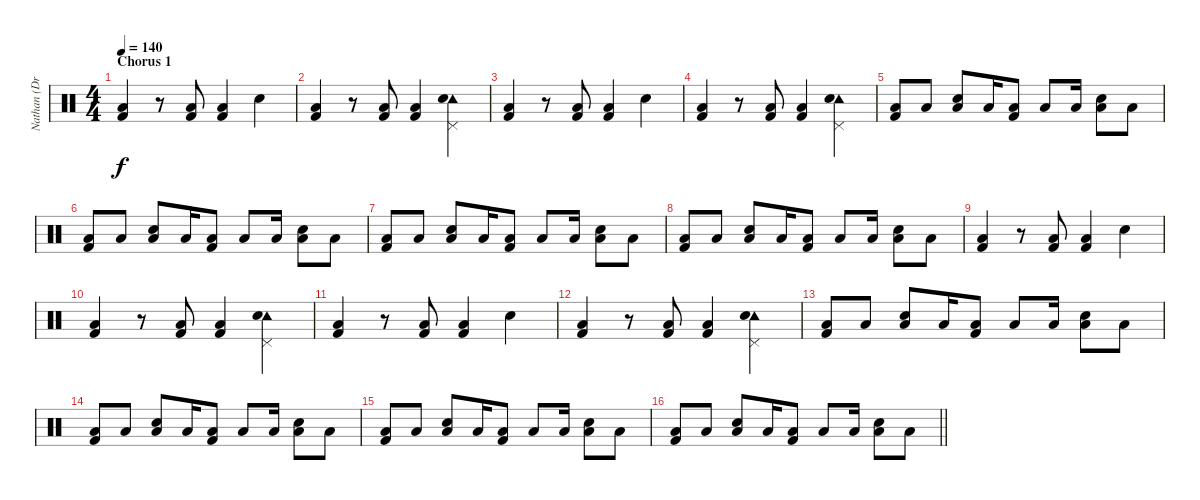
\track ("Nathan (Drums)" "Nathan (Dr") {instrument percussion}
\staff {score}
\articulation defaults
\ts (4 4)
\section ("" "Chorus 1")
\tempo 140
\clef neutral
\ks c
("Low Floor Tom (hit)" "Kick (hit) 2").4{dy f} r.8 ("Low Floor Tom (hit)" "Kick (hit) 2").8 ("Low Floor Tom (hit)" "Kick (hit) 2").4 "Electric Snare (hit)".4 |
("Low Floor Tom (hit)" "Kick (hit) 2").4 r.8 ("Low Floor Tom (hit)" "Kick (hit) 2").8 ("Low Floor Tom (hit)" "Kick (hit) 2").4 ("Pedal Hi-Hat (hit)" "Tambourine (hit)" "Electric Snare (hit)").4 |
("Low Floor Tom (hit)" "Kick (hit) 2").4 r.8 ("Low Floor Tom (hit)" "Kick (hit) 2").8 ("Low Floor Tom (hit)" "Kick (hit) 2").4 "Electric Snare (hit)".4 |
("Low Floor Tom (hit)" "Kick (hit) 2").4 r.8 ("Low Floor Tom (hit)" "Kick (hit) 2").8 ("Low Floor Tom (hit)" "Kick (hit) 2").4 ("Pedal Hi-Hat (hit)" "Tambourine (hit)" "Electric Snare (hit)").4 |
("Low Floor Tom (hit)" "Kick (hit) 2").8 "Low Floor Tom (hit)".8 ("Low Floor Tom (hit)" "Electric Snare (hit)").8 "Low Floor Tom (hit)".16 ("Low Tom (hit)" "Kick (hit) 2").8 "Low Tom (hit)".8 "Low Tom (hit)".16 ("Low Floor Tom (hit)" "Electric Snare (hit)").8 "Low Floor Tom (hit)".8 |
("Low Floor Tom (hit)" "Kick (hit) 2").8 "Low Floor Tom (hit)".8 ("Low Floor Tom (hit)" "Electric Snare (hit)").8 "Low Floor Tom (hit)".16 ("Low Tom (hit)" "Kick (hit) 2").8 "Low Tom (hit)".8 "Low Tom (hit)".16 ("Low Floor Tom (hit)" "Electric Snare (hit)").8 "Low Floor Tom (hit)".8 |
("Low Floor Tom (hit)" "Kick (hit) 2").8 "Low Floor Tom (hit)".8 ("Low Floor Tom (hit)" "Electric Snare (hit)").8 "Low Floor Tom (hit)".16 ("Low Tom (hit)" "Kick (hit) 2").8 "Low Tom (hit)".8 "Low Tom (hit)".16 ("Low Floor Tom (hit)" "Electric Snare (hit)").8 "Low Floor Tom (hit)".8 |
("Low Floor Tom (hit)" "Kick (hit) 2").8 "Low Floor Tom (hit)".8 ("Low Floor Tom (hit)" "Electric Snare (hit)").8 "Low Floor Tom (hit)".16 ("Low Tom (hit)" "Kick (hit) 2").8 "Low Tom (hit)".8 "Low Tom (hit)".16 ("Low Floor Tom (hit)" "Electric Snare (hit)").8 "Low Floor Tom (hit)".8 |
("Low Floor Tom (hit)" "Kick (hit) 2").4 r.8 ("Low Floor Tom (hit)" "Kick (hit) 2").8 ("Low Floor Tom (hit)" "Kick (hit) 2").4 "Electric Snare (hit)".4 |
("Low Floor Tom (hit)" "Kick (hit) 2").4 r.8 ("Low Floor Tom (hit)" "Kick (hit) 2").8 ("Low Floor Tom (hit)" "Kick (hit) 2").4 ("Pedal Hi-Hat (hit)" "Tambourine (hit)" "Electric Snare (hit)").4 |
("Low Floor Tom (hit)" "Kick (hit) 2").4 r.8 ("Low Floor Tom (hit)" "Kick (hit) 2").8 ("Low Floor Tom (hit)" "Kick (hit) 2").4 "Electric Snare (hit)".4 |
("Low Floor Tom (hit)" "Kick (hit) 2").4 r.8 ("Low Floor Tom (hit)" "Kick (hit) 2").8 ("Low Floor Tom (hit)" "Kick (hit) 2").4 ("Pedal Hi-Hat (hit)" "Tambourine (hit)" "Electric Snare (hit)").4 |
("Low Floor Tom (hit)" "Kick (hit) 2").8 "Low Floor Tom (hit)".8 ("Low Floor Tom (hit)" "Electric Snare (hit)").8 "Low Floor Tom (hit)".16 ("Low Tom (hit)" "Kick (hit) 2").8 "Low Tom (hit)".8 "Low Tom (hit)".16 ("Low Floor Tom (hit)" "Electric Snare (hit)").8 "Low Floor Tom (hit)".8 |
("Low Floor Tom (hit)" "Kick (hit) 2").8 "Low Floor Tom (hit)".8 ("Low Floor Tom (hit)" "Electric Snare (hit)").8 "Low Floor Tom (hit)".16 ("Low Tom (hit)" "Kick (hit) 2").8 "Low Tom (hit)".8 "Low Tom (hit)".16 ("Low Floor Tom (hit)" "Electric Snare (hit)").8 "Low Floor Tom (hit)".8 |
("Low Floor Tom (hit)" "Kick (hit) 2").8 "Low Floor Tom (hit)".8 ("Low Floor Tom (hit)" "Electric Snare (hit)").8 "Low Floor Tom (hit)".16 ("Low Tom (hit)" "Kick (hit) 2").8 "Low Tom (hit)".8 "Low Tom (hit)".16 ("Low Floor Tom (hit)" "Electric Snare (hit)").8 "Low Floor Tom (hit)".8 |
\barLineRight lightlight
("Low Floor Tom (hit)" "Kick (hit) 2").8 "Low Floor Tom (hit)".8 ("Low Floor Tom (hit)" "Electric Snare (hit)").8 "Low Floor Tom (hit)".16 ("Low Tom (hit)" "Kick (hit) 2").8 "Low Tom (hit)".8 "Low Tom (hit)".16 ("Low Floor Tom (hit)" "Electric Snare (hit)").8 "Low Floor Tom (hit)".8
